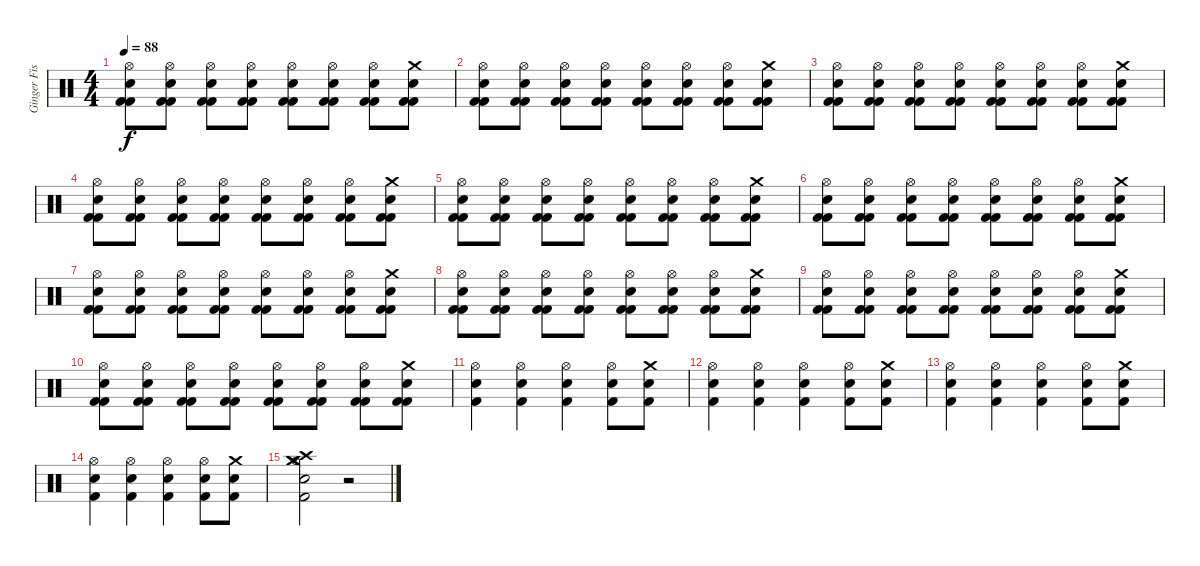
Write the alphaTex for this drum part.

\track ("Ginger Fish (Drums)" "Ginger Fis") {instrument percussion}
\staff {score}
\articulation defaults
\ts (4 4)
\tempo 88
\clef neutral
\ks c
("Hi-Hat (open)" "Snare (hit) 2" "Kick (hit) 2" "Kick (hit) 2").8{dy f} ("Hi-Hat (open)" "Electric Snare (hit)" "Kick (hit) 2" "Kick (hit) 2").8 ("Hi-Hat (open)" "Snare (hit) 2" "Kick (hit) 2" "Kick (hit) 2").8 ("Hi-Hat (open)" "Electric Snare (hit)" "Kick (hit) 2" "Kick (hit) 2").8 ("Hi-Hat (open)" "Snare (hit) 2" "Kick (hit) 2" "Kick (hit) 2").8 ("Hi-Hat (open)" "Electric Snare (hit)" "Kick (hit) 2" "Kick (hit) 2").8 ("Hi-Hat (open)" "Snare (hit) 2" "Kick (hit) 2" "Kick (hit) 2").8 ("Crash medium (hit)" "Electric Snare (hit)" "Kick (hit) 2" "Kick (hit) 2").8 |
("Hi-Hat (open)" "Snare (hit) 2" "Kick (hit) 2" "Kick (hit) 2").8 ("Hi-Hat (open)" "Electric Snare (hit)" "Kick (hit) 2" "Kick (hit) 2").8 ("Hi-Hat (open)" "Snare (hit) 2" "Kick (hit) 2" "Kick (hit) 2").8 ("Hi-Hat (open)" "Electric Snare (hit)" "Kick (hit) 2" "Kick (hit) 2").8 ("Hi-Hat (open)" "Snare (hit) 2" "Kick (hit) 2" "Kick (hit) 2").8 ("Hi-Hat (open)" "Electric Snare (hit)" "Kick (hit) 2" "Kick (hit) 2").8 ("Hi-Hat (open)" "Snare (hit) 2" "Kick (hit) 2" "Kick (hit) 2").8 ("Crash medium (hit)" "Electric Snare (hit)" "Kick (hit) 2" "Kick (hit) 2").8 |
("Hi-Hat (open)" "Snare (hit) 2" "Kick (hit) 2" "Kick (hit) 2").8 ("Hi-Hat (open)" "Electric Snare (hit)" "Kick (hit) 2" "Kick (hit) 2").8 ("Hi-Hat (open)" "Snare (hit) 2" "Kick (hit) 2" "Kick (hit) 2").8 ("Hi-Hat (open)" "Electric Snare (hit)" "Kick (hit) 2" "Kick (hit) 2").8 ("Hi-Hat (open)" "Snare (hit) 2" "Kick (hit) 2" "Kick (hit) 2").8 ("Hi-Hat (open)" "Electric Snare (hit)" "Kick (hit) 2" "Kick (hit) 2").8 ("Hi-Hat (open)" "Snare (hit) 2" "Kick (hit) 2" "Kick (hit) 2").8 ("Crash medium (hit)" "Electric Snare (hit)" "Kick (hit) 2" "Kick (hit) 2").8 |
("Hi-Hat (open)" "Snare (hit) 2" "Kick (hit) 2" "Kick (hit) 2").8 ("Hi-Hat (open)" "Electric Snare (hit)" "Kick (hit) 2" "Kick (hit) 2").8 ("Hi-Hat (open)" "Snare (hit) 2" "Kick (hit) 2" "Kick (hit) 2").8 ("Hi-Hat (open)" "Electric Snare (hit)" "Kick (hit) 2" "Kick (hit) 2").8 ("Hi-Hat (open)" "Snare (hit) 2" "Kick (hit) 2" "Kick (hit) 2").8 ("Hi-Hat (open)" "Electric Snare (hit)" "Kick (hit) 2" "Kick (hit) 2").8 ("Hi-Hat (open)" "Snare (hit) 2" "Kick (hit) 2" "Kick (hit) 2").8 ("Crash medium (hit)" "Electric Snare (hit)" "Kick (hit) 2" "Kick (hit) 2").8 |
("Hi-Hat (open)" "Snare (hit) 2" "Kick (hit) 2" "Kick (hit) 2").8 ("Hi-Hat (open)" "Electric Snare (hit)" "Kick (hit) 2" "Kick (hit) 2").8 ("Hi-Hat (open)" "Snare (hit) 2" "Kick (hit) 2" "Kick (hit) 2").8 ("Hi-Hat (open)" "Electric Snare (hit)" "Kick (hit) 2" "Kick (hit) 2").8 ("Hi-Hat (open)" "Snare (hit) 2" "Kick (hit) 2" "Kick (hit) 2").8 ("Hi-Hat (open)" "Electric Snare (hit)" "Kick (hit) 2" "Kick (hit) 2").8 ("Hi-Hat (open)" "Snare (hit) 2" "Kick (hit) 2" "Kick (hit) 2").8 ("Crash medium (hit)" "Electric Snare (hit)" "Kick (hit) 2" "Kick (hit) 2").8 |
("Hi-Hat (open)" "Snare (hit) 2" "Kick (hit) 2" "Kick (hit) 2").8 ("Hi-Hat (open)" "Electric Snare (hit)" "Kick (hit) 2" "Kick (hit) 2").8 ("Hi-Hat (open)" "Snare (hit) 2" "Kick (hit) 2" "Kick (hit) 2").8 ("Hi-Hat (open)" "Electric Snare (hit)" "Kick (hit) 2" "Kick (hit) 2").8 ("Hi-Hat (open)" "Snare (hit) 2" "Kick (hit) 2" "Kick (hit) 2").8 ("Hi-Hat (open)" "Electric Snare (hit)" "Kick (hit) 2" "Kick (hit) 2").8 ("Hi-Hat (open)" "Snare (hit) 2" "Kick (hit) 2" "Kick (hit) 2").8 ("Crash medium (hit)" "Electric Snare (hit)" "Kick (hit) 2" "Kick (hit) 2").8 |
("Hi-Hat (open)" "Snare (hit) 2" "Kick (hit) 2" "Kick (hit) 2").8 ("Hi-Hat (open)" "Electric Snare (hit)" "Kick (hit) 2" "Kick (hit) 2").8 ("Hi-Hat (open)" "Snare (hit) 2" "Kick (hit) 2" "Kick (hit) 2").8 ("Hi-Hat (open)" "Electric Snare (hit)" "Kick (hit) 2" "Kick (hit) 2").8 ("Hi-Hat (open)" "Snare (hit) 2" "Kick (hit) 2" "Kick (hit) 2").8 ("Hi-Hat (open)" "Electric Snare (hit)" "Kick (hit) 2" "Kick (hit) 2").8 ("Hi-Hat (open)" "Snare (hit) 2" "Kick (hit) 2" "Kick (hit) 2").8 ("Crash medium (hit)" "Electric Snare (hit)" "Kick (hit) 2" "Kick (hit) 2").8 |
("Hi-Hat (open)" "Snare (hit) 2" "Kick (hit) 2" "Kick (hit) 2").8 ("Hi-Hat (open)" "Electric Snare (hit)" "Kick (hit) 2" "Kick (hit) 2").8 ("Hi-Hat (open)" "Snare (hit) 2" "Kick (hit) 2" "Kick (hit) 2").8 ("Hi-Hat (open)" "Electric Snare (hit)" "Kick (hit) 2" "Kick (hit) 2").8 ("Hi-Hat (open)" "Snare (hit) 2" "Kick (hit) 2" "Kick (hit) 2").8 ("Hi-Hat (open)" "Electric Snare (hit)" "Kick (hit) 2" "Kick (hit) 2").8 ("Hi-Hat (open)" "Snare (hit) 2" "Kick (hit) 2" "Kick (hit) 2").8 ("Crash medium (hit)" "Electric Snare (hit)" "Kick (hit) 2" "Kick (hit) 2").8 |
("Hi-Hat (open)" "Snare (hit) 2" "Kick (hit) 2" "Kick (hit) 2").8 ("Hi-Hat (open)" "Electric Snare (hit)" "Kick (hit) 2" "Kick (hit) 2").8 ("Hi-Hat (open)" "Snare (hit) 2" "Kick (hit) 2" "Kick (hit) 2").8 ("Hi-Hat (open)" "Electric Snare (hit)" "Kick (hit) 2" "Kick (hit) 2").8 ("Hi-Hat (open)" "Snare (hit) 2" "Kick (hit) 2" "Kick (hit) 2").8 ("Hi-Hat (open)" "Electric Snare (hit)" "Kick (hit) 2" "Kick (hit) 2").8 ("Hi-Hat (open)" "Snare (hit) 2" "Kick (hit) 2" "Kick (hit) 2").8 ("Crash medium (hit)" "Electric Snare (hit)" "Kick (hit) 2" "Kick (hit) 2").8 |
("Hi-Hat (open)" "Snare (hit) 2" "Kick (hit) 2" "Kick (hit) 2").8 ("Hi-Hat (open)" "Electric Snare (hit)" "Kick (hit) 2" "Kick (hit) 2").8 ("Hi-Hat (open)" "Snare (hit) 2" "Kick (hit) 2" "Kick (hit) 2").8 ("Hi-Hat (open)" "Electric Snare (hit)" "Kick (hit) 2" "Kick (hit) 2").8 ("Hi-Hat (open)" "Snare (hit) 2" "Kick (hit) 2" "Kick (hit) 2").8 ("Hi-Hat (open)" "Electric Snare (hit)" "Kick (hit) 2" "Kick (hit) 2").8 ("Hi-Hat (open)" "Snare (hit) 2" "Kick (hit) 2" "Kick (hit) 2").8 ("Crash medium (hit)" "Electric Snare (hit)" "Kick (hit) 2" "Kick (hit) 2").8 |
("Hi-Hat (open)" "Snare (hit) 2" "Kick (hit) 2").4 ("Hi-Hat (open)" "Snare (hit) 2" "Kick (hit) 2").4 ("Hi-Hat (open)" "Snare (hit) 2" "Kick (hit) 2").4 ("Hi-Hat (open)" "Snare (hit) 2" "Kick (hit) 2").8 ("Crash medium (hit)" "Electric Snare (hit)" "Kick (hit) 2").8 |
("Hi-Hat (open)" "Snare (hit) 2" "Kick (hit) 2").4 ("Hi-Hat (open)" "Snare (hit) 2" "Kick (hit) 2").4 ("Hi-Hat (open)" "Snare (hit) 2" "Kick (hit) 2").4 ("Hi-Hat (open)" "Snare (hit) 2" "Kick (hit) 2").8 ("Crash medium (hit)" "Electric Snare (hit)" "Kick (hit) 2").8 |
("Hi-Hat (open)" "Snare (hit) 2" "Kick (hit) 2").4 ("Hi-Hat (open)" "Snare (hit) 2" "Kick (hit) 2").4 ("Hi-Hat (open)" "Snare (hit) 2" "Kick (hit) 2").4 ("Hi-Hat (open)" "Snare (hit) 2" "Kick (hit) 2").8 ("Crash medium (hit)" "Electric Snare (hit)" "Kick (hit) 2").8 |
("Hi-Hat (open)" "Snare (hit) 2" "Kick (hit) 2").4 ("Hi-Hat (open)" "Snare (hit) 2" "Kick (hit) 2").4 ("Hi-Hat (open)" "Snare (hit) 2" "Kick (hit) 2").4 ("Hi-Hat (open)" "Snare (hit) 2" "Kick (hit) 2").8 ("Crash medium (hit)" "Electric Snare (hit)" "Kick (hit) 2").8 |
("Crash medium (hit)" "Hi-Hat (open)" "Snare (hit) 2" "Crash high (hit)" "Crash medium (hit)" "Kick (hit) 2").2 r.2
